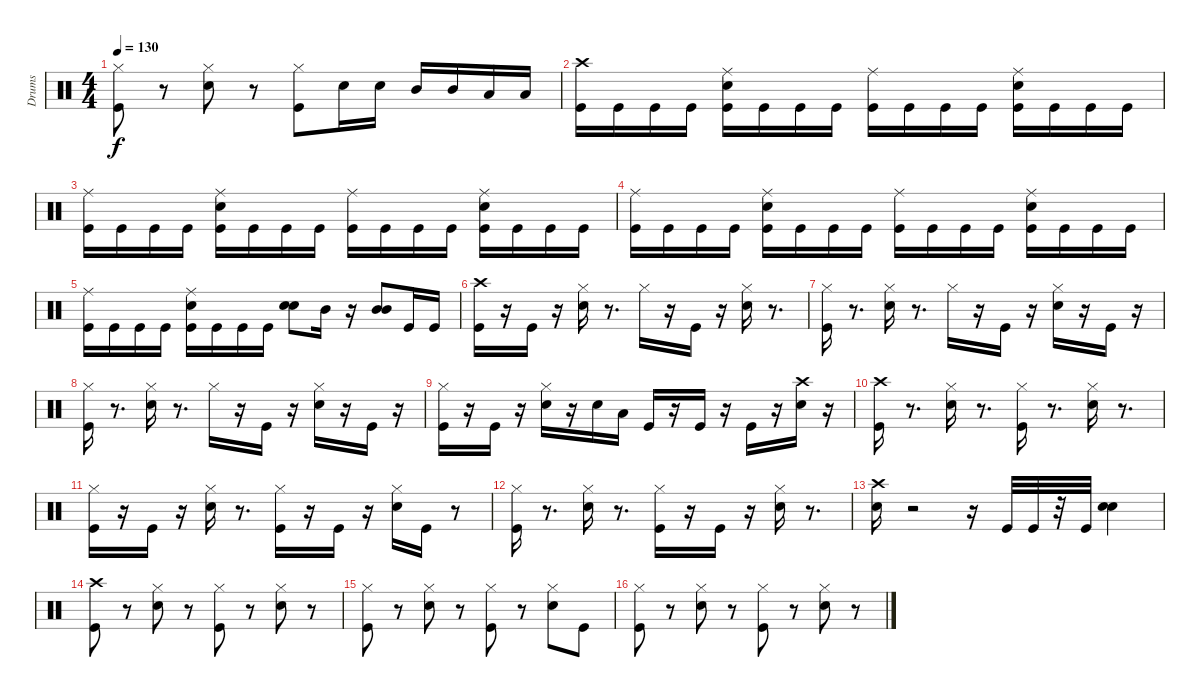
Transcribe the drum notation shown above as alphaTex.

\track ("Drums" "Drums") {instrument percussion}
\staff {score}
\articulation defaults
\ts (4 4)
\tempo 130
\clef neutral
\ks c
("Hi-Hat (closed)" "Kick (hit)").8{dy f} r.8 ("Snare (hit) 2" "Hi-Hat (closed)").8 r.8 ("Kick (hit)" "Hi-Hat (closed)").8 "Snare (hit) 2".16 "Snare (hit) 2".16 "Mid Tom (hit)".16 "Mid Tom (hit)".16 "Low Tom (hit)".16 "Low Tom (hit)".16 |
("Kick (hit)" "Crash high (hit)").16 "Kick (hit)".16 "Kick (hit)".16 "Kick (hit)".16 ("Kick (hit)" "Snare (hit) 2" "Ride (middle)").16 "Kick (hit)".16 "Kick (hit)".16 "Kick (hit)".16 ("Kick (hit)" "Ride (middle)").16 "Kick (hit)".16 "Kick (hit)".16 "Kick (hit)".16 ("Kick (hit)" "Snare (hit) 2" "Ride (middle)").16 "Kick (hit)".16 "Kick (hit)".16 "Kick (hit)".16 |
("Kick (hit)" "Ride (middle)").16 "Kick (hit)".16 "Kick (hit)".16 "Kick (hit)".16 ("Kick (hit)" "Snare (hit) 2" "Ride (middle)").16 "Kick (hit)".16 "Kick (hit)".16 "Kick (hit)".16 ("Kick (hit)" "Ride (middle)").16 "Kick (hit)".16 "Kick (hit)".16 "Kick (hit)".16 ("Kick (hit)" "Snare (hit) 2" "Ride (middle)").16 "Kick (hit)".16 "Kick (hit)".16 "Kick (hit)".16 |
("Kick (hit)" "Ride (middle)").16 "Kick (hit)".16 "Kick (hit)".16 "Kick (hit)".16 ("Kick (hit)" "Snare (hit) 2" "Ride (middle)").16 "Kick (hit)".16 "Kick (hit)".16 "Kick (hit)".16 ("Kick (hit)" "Ride (middle)").16 "Kick (hit)".16 "Kick (hit)".16 "Kick (hit)".16 ("Kick (hit)" "Snare (hit) 2" "Ride (middle)").16 "Kick (hit)".16 "Kick (hit)".16 "Kick (hit)".16 |
("Kick (hit)" "Ride (middle)").16 "Kick (hit)".16 "Kick (hit)".16 "Kick (hit)".16 ("Kick (hit)" "Snare (hit) 2" "Ride (middle)").16 "Kick (hit)".16 "Kick (hit)".16 "Kick (hit)".16 ("Snare (hit) 2" "Snare (hit) 2").8 "Mid Tom (hit)".16 r.16 ("Mid Tom (hit)" "Mid Tom (hit)").8 "Kick (hit)".16 "Kick (hit)".16 |
("Crash high (hit)" "Kick (hit)").16 r.16 "Kick (hit)".16 r.16 ("Hi-Hat (closed)" "Snare (hit) 2").16 r.8{d} "Hi-Hat (closed)".16 r.16 "Kick (hit)".16 r.16 ("Hi-Hat (closed)" "Snare (hit) 2").16 r.8{d} |
("Kick (hit)" "Hi-Hat (closed)").16 r.8{d} ("Hi-Hat (closed)" "Snare (hit) 2").16 r.8{d} "Hi-Hat (closed)".16 r.16 "Kick (hit)".16 r.16 ("Snare (hit) 2" "Hi-Hat (closed)").16 r.16 "Kick (hit)".16 r.16 |
("Kick (hit)" "Hi-Hat (closed)").16 r.8{d} ("Hi-Hat (closed)" "Snare (hit) 2").16 r.8{d} "Hi-Hat (closed)".16 r.16 "Kick (hit)".16 r.16 ("Snare (hit) 2" "Hi-Hat (closed)").16 r.16 "Kick (hit)".16 r.16 |
("Hi-Hat (closed)" "Kick (hit)").16 r.16 "Kick (hit)".16 r.16 ("Hi-Hat (closed)" "Snare (hit) 2").16 r.16 "Snare (hit) 2".16 "Low Tom (hit)".16 "Kick (hit)".16 r.16 "Kick (hit)".16 r.16 "Kick (hit)".16 r.16 ("Crash high (hit)" "Snare (hit) 2").16 r.16 |
("Crash high (hit)" "Kick (hit)").16 r.8{d} ("Snare (hit) 2" "Hi-Hat (closed)").16 r.8{d} ("Kick (hit)" "Hi-Hat (closed)").16 r.8{d} ("Snare (hit) 2" "Hi-Hat (closed)").16 r.8{d} |
("Hi-Hat (closed)" "Kick (hit)").16 r.16 "Kick (hit)".16 r.16 ("Snare (hit) 2" "Hi-Hat (closed)").16 r.8{d} ("Hi-Hat (closed)" "Kick (hit)").16 r.16 "Kick (hit)".16 r.16 ("Hi-Hat (closed)" "Snare (hit) 2").16 "Kick (hit)".16 r.8 |
("Hi-Hat (closed)" "Kick (hit)").16 r.8{d} ("Snare (hit) 2" "Hi-Hat (closed)").16 r.8{d} ("Kick (hit)" "Hi-Hat (closed)").16 r.16 "Kick (hit)".16 r.16 ("Snare (hit) 2" "Hi-Hat (closed)").16 r.8{d} |
("Crash high (hit)" "Snare (hit) 2").16 r.2 r.16 "Kick (hit)".32 "Kick (hit)".32 r.32 "Kick (hit)".32 ("Snare (hit) 2" "Snare (hit) 2").4 |
("Crash high (hit)" "Kick (hit)").8 r.8 ("Hi-Hat (closed)" "Snare (hit) 2").8 r.8 ("Kick (hit)" "Hi-Hat (closed)").8 r.8 ("Snare (hit) 2" "Hi-Hat (closed)").8 r.8 |
("Hi-Hat (closed)" "Kick (hit)").8 r.8 ("Snare (hit) 2" "Hi-Hat (closed)").8 r.8 ("Kick (hit)" "Hi-Hat (closed)").8 r.8 ("Snare (hit) 2" "Hi-Hat (closed)").8 "Kick (hit)".8 |
("Hi-Hat (closed)" "Kick (hit)").8 r.8 ("Snare (hit) 2" "Hi-Hat (closed)").8 r.8 ("Kick (hit)" "Hi-Hat (closed)").8 r.8 ("Snare (hit) 2" "Hi-Hat (closed)").8 r.8
